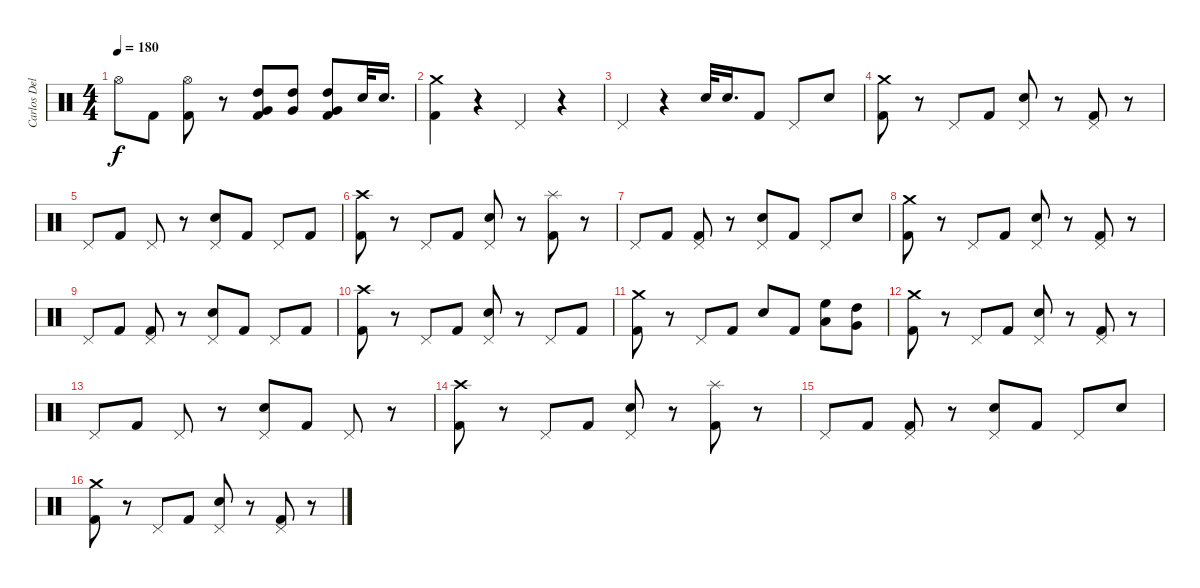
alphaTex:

\track ("Carlos Delgado" "Carlos Del") {instrument percussion}
\staff {score}
\articulation defaults
\ts (4 4)
\tempo 180
\clef neutral
\ks c "Hi-Hat (open)".8{dy f} "Kick (hit) 2".8
("Kick (hit) 2" "Hi-Hat (open)").8 r.8 ("Kick (hit) 2" "Very Low Tom (hit)" "High Tom (hit)").8 ("Very Low Tom (hit)" "High Tom (hit)").8 ("Kick (hit) 2" "Very Low Tom (hit)" "High Tom (hit)").8 "Electric Snare (hit)".32 "Electric Snare (hit)".16{d} |
("Crash medium (hit)" "Kick (hit) 2").4 r.4 "Pedal Hi-Hat (hit)".4 r.4 |
"Pedal Hi-Hat (hit)".4 r.4 "Electric Snare (hit)".32 "Electric Snare (hit)".16{d} "Kick (hit) 2".8 "Pedal Hi-Hat (hit)".8 "Electric Snare (hit)".8 |
("Crash medium (hit)" "Kick (hit) 2").8 r.8 "Pedal Hi-Hat (hit)".8 "Kick (hit) 2".8 ("Pedal Hi-Hat (hit)" "Electric Snare (hit)").8 r.8 ("Pedal Hi-Hat (hit)" "Kick (hit) 2").8 r.8 |
"Pedal Hi-Hat (hit)".8 "Kick (hit) 2".8 "Pedal Hi-Hat (hit)".8 r.8 ("Electric Snare (hit)" "Pedal Hi-Hat (hit)").8 "Kick (hit) 2".8 "Pedal Hi-Hat (hit)".8 "Kick (hit) 2".8 |
("Crash high (hit)" "Kick (hit) 2").8 r.8 "Pedal Hi-Hat (hit)".8 "Kick (hit) 2".8 ("Electric Snare (hit)" "Pedal Hi-Hat (hit)").8 r.8 ("Kick (hit) 2" "Splash (hit)").8 r.8 |
"Pedal Hi-Hat (hit)".8 "Kick (hit) 2".8 ("Pedal Hi-Hat (hit)" "Kick (hit) 2").8 r.8 ("Electric Snare (hit)" "Pedal Hi-Hat (hit)").8 "Kick (hit) 2".8 "Pedal Hi-Hat (hit)".8 "Electric Snare (hit)".8 |
("Crash medium (hit)" "Kick (hit) 2").8 r.8 "Pedal Hi-Hat (hit)".8 "Kick (hit) 2".8 ("Electric Snare (hit)" "Pedal Hi-Hat (hit)").8 r.8 ("Pedal Hi-Hat (hit)" "Kick (hit) 2").8 r.8 |
"Pedal Hi-Hat (hit)".8 "Kick (hit) 2".8 ("Pedal Hi-Hat (hit)" "Kick (hit) 2").8 r.8 ("Pedal Hi-Hat (hit)" "Electric Snare (hit)").8 "Kick (hit) 2".8 "Pedal Hi-Hat (hit)".8 "Kick (hit) 2".8 |
("Crash high (hit)" "Kick (hit) 2").8 r.8 "Pedal Hi-Hat (hit)".8 "Kick (hit) 2".8 ("Pedal Hi-Hat (hit)" "Electric Snare (hit)").8 r.8 "Pedal Hi-Hat (hit)".8 "Kick (hit) 2".8 |
("Crash medium (hit)" "Kick (hit) 2").8 r.8 "Pedal Hi-Hat (hit)".8 "Kick (hit) 2".8 "Electric Snare (hit)".8 "Kick (hit) 2".8 ("Low Tom (hit)" "High Floor Tom (hit)").8 ("High Tom (hit)" "Very Low Tom (hit)").8 |
("Crash medium (hit)" "Kick (hit) 2").8 r.8 "Pedal Hi-Hat (hit)".8 "Kick (hit) 2".8 ("Pedal Hi-Hat (hit)" "Electric Snare (hit)").8 r.8 ("Pedal Hi-Hat (hit)" "Kick (hit) 2").8 r.8 |
"Pedal Hi-Hat (hit)".8 "Kick (hit) 2".8 "Pedal Hi-Hat (hit)".8 r.8 ("Electric Snare (hit)" "Pedal Hi-Hat (hit)").8 "Kick (hit) 2".8 "Pedal Hi-Hat (hit)".8 r.8 |
("Crash high (hit)" "Kick (hit) 2").8 r.8 "Pedal Hi-Hat (hit)".8 "Kick (hit) 2".8 ("Electric Snare (hit)" "Pedal Hi-Hat (hit)").8 r.8 ("Kick (hit) 2" "Splash (hit)").8 r.8 |
"Pedal Hi-Hat (hit)".8 "Kick (hit) 2".8 ("Pedal Hi-Hat (hit)" "Kick (hit) 2").8 r.8 ("Electric Snare (hit)" "Pedal Hi-Hat (hit)").8 "Kick (hit) 2".8 "Pedal Hi-Hat (hit)".8 "Electric Snare (hit)".8 |
("Crash medium (hit)" "Kick (hit) 2").8 r.8 "Pedal Hi-Hat (hit)".8 "Kick (hit) 2".8 ("Electric Snare (hit)" "Pedal Hi-Hat (hit)").8 r.8 ("Pedal Hi-Hat (hit)" "Kick (hit) 2").8 r.8
